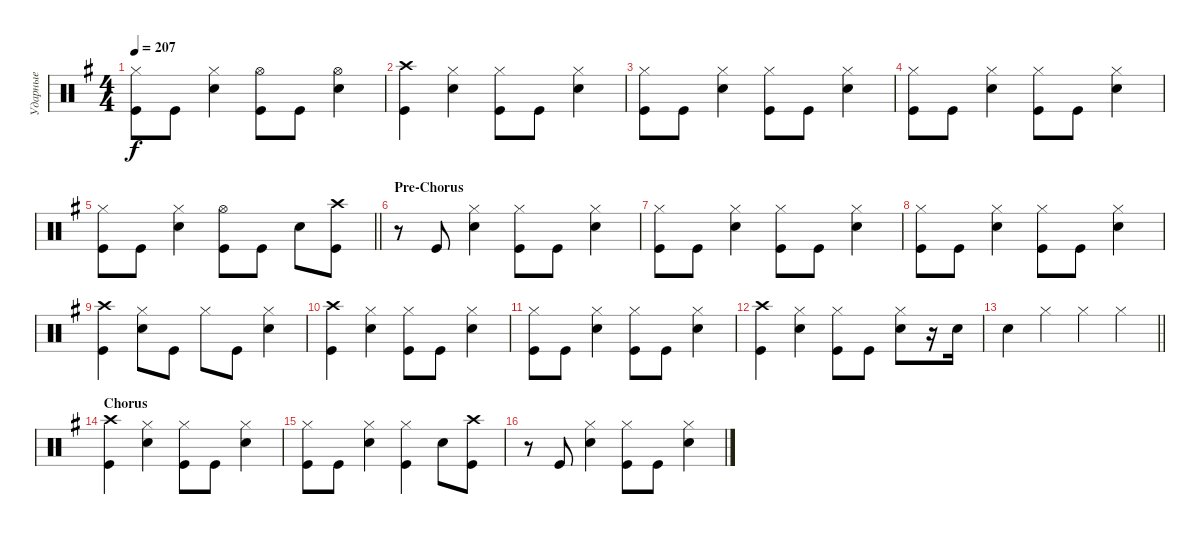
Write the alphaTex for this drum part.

\track ("Ударные" "Ударные") {instrument percussion}
\staff {score}
\articulation defaults
\ts (4 4)
\tempo 207
\clef neutral
\ks eminor
("Kick (hit)" "Hi-Hat (closed)").8{dy f} "Kick (hit)".8 ("Snare (hit) 2" "Hi-Hat (closed)").4 ("Kick (hit)" "Hi-Hat (open)").8 "Kick (hit)".8 ("Snare (hit) 2" "Hi-Hat (open)").4 |
("Kick (hit)" "Crash high (hit)").4 ("Snare (hit) 2" "Hi-Hat (closed)").4 ("Kick (hit)" "Hi-Hat (closed)").8 "Kick (hit)".8 ("Snare (hit) 2" "Hi-Hat (closed)").4 |
("Kick (hit)" "Hi-Hat (closed)").8 "Kick (hit)".8 ("Snare (hit) 2" "Hi-Hat (closed)").4 ("Kick (hit)" "Hi-Hat (closed)").8 "Kick (hit)".8 ("Snare (hit) 2" "Hi-Hat (closed)").4 |
("Kick (hit)" "Hi-Hat (closed)").8 "Kick (hit)".8 ("Snare (hit) 2" "Hi-Hat (closed)").4 ("Kick (hit)" "Hi-Hat (closed)").8 "Kick (hit)".8 ("Snare (hit) 2" "Hi-Hat (closed)").4 |
\barLineRight lightlight
("Kick (hit)" "Hi-Hat (closed)").8 "Kick (hit)".8 ("Snare (hit) 2" "Hi-Hat (closed)").4 ("Kick (hit)" "Hi-Hat (open)").8 "Kick (hit)".8 "Snare (hit) 2".8 ("Kick (hit)" "Crash high (hit)").8 |
\section ("" "Pre-Chorus")
r.8 "Kick (hit)".8 ("Snare (hit) 2" "Hi-Hat (closed)").4 ("Kick (hit)" "Hi-Hat (closed)").8 "Kick (hit)".8 ("Snare (hit) 2" "Hi-Hat (closed)").4 |
("Kick (hit)" "Hi-Hat (closed)").8 "Kick (hit)".8 ("Snare (hit) 2" "Hi-Hat (closed)").4 ("Kick (hit)" "Hi-Hat (closed)").8 "Kick (hit)".8 ("Snare (hit) 2" "Hi-Hat (closed)").4 |
("Kick (hit)" "Hi-Hat (closed)").8 "Kick (hit)".8 ("Snare (hit) 2" "Hi-Hat (closed)").4 ("Kick (hit)" "Hi-Hat (closed)").8 "Kick (hit)".8 ("Snare (hit) 2" "Hi-Hat (closed)").4 |
("Kick (hit)" "Crash high (hit)").4 ("Snare (hit) 2" "Hi-Hat (closed)").8 "Kick (hit)".8 "Hi-Hat (closed)".8 "Kick (hit)".8 ("Snare (hit) 2" "Hi-Hat (closed)").4 |
("Kick (hit)" "Crash high (hit)").4 ("Snare (hit) 2" "Hi-Hat (closed)").4 ("Kick (hit)" "Hi-Hat (closed)").8 "Kick (hit)".8 ("Snare (hit) 2" "Hi-Hat (closed)").4 |
("Kick (hit)" "Hi-Hat (closed)").8 "Kick (hit)".8 ("Snare (hit) 2" "Hi-Hat (closed)").4 ("Kick (hit)" "Hi-Hat (closed)").8 "Kick (hit)".8 ("Snare (hit) 2" "Hi-Hat (closed)").4 |
("Kick (hit)" "Crash high (hit)").4 ("Snare (hit) 2" "Hi-Hat (closed)").4 ("Kick (hit)" "Hi-Hat (closed)").8 "Kick (hit)".8 ("Snare (hit) 2" "Hi-Hat (closed)").8 r.16 "Snare (hit) 2".16 |
\barLineRight lightlight "Snare (hit) 2".4 "Hi-Hat (closed)".4 "Hi-Hat (closed)".4 "Hi-Hat (closed)".4
|
\section ("" "Chorus")
("Kick (hit)" "Crash high (hit)").4 ("Snare (hit) 2" "Hi-Hat (closed)").4 ("Kick (hit)" "Hi-Hat (closed)").8 "Kick (hit)".8 ("Snare (hit) 2" "Hi-Hat (closed)").4 |
("Kick (hit)" "Hi-Hat (closed)").8 "Kick (hit)".8 ("Snare (hit) 2" "Hi-Hat (closed)").4 ("Kick (hit)" "Hi-Hat (closed)").4 "Snare (hit) 2".8 ("Crash high (hit)" "Kick (hit)").8 |
r.8 "Kick (hit)".8 ("Snare (hit) 2" "Hi-Hat (closed)").4 ("Kick (hit)" "Hi-Hat (closed)").8 "Kick (hit)".8 ("Snare (hit) 2" "Hi-Hat (closed)").4
